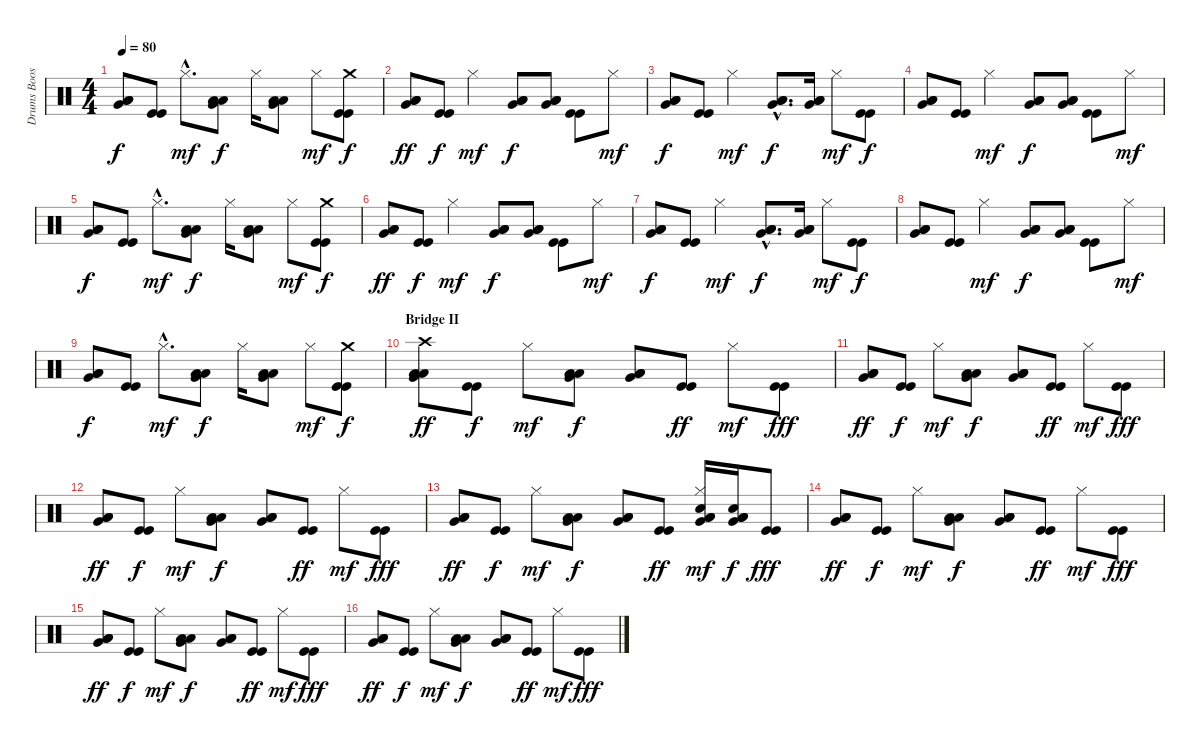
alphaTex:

\track ("Drums Boost" "Drums Boos") {instrument percussion}
\staff {score}
\articulation defaults
\ts (4 4)
\tempo 80
\clef neutral
\ks c
("Very Low Tom (hit)" "Low Floor Tom (hit)" "Low Tom (hit)").8{dy f} ("Kick (hit)" "Kick (hit)").8 "Hi-Hat (closed)"{hac}.8{d dy mf} ("Very Low Tom (hit)" "Low Floor Tom (hit)" "Low Tom (hit)").8{dy f} "Hi-Hat (closed)".16 ("Very Low Tom (hit)" "Low Floor Tom (hit)" "Low Tom (hit)").8 "Hi-Hat (closed)".8{dy mf} ("Crash medium (hit)" "Kick (hit)" "Kick (hit)").8{dy f} |
("Very Low Tom (hit)" "Low Floor Tom (hit)" "Low Tom (hit)").8{bd 60 dy ff} ("Kick (hit)" "Kick (hit)").8{dy f} "Hi-Hat (closed)".4{dy mf} ("Very Low Tom (hit)" "Low Floor Tom (hit)" "Low Tom (hit)").8{dy f} ("Very Low Tom (hit)" "Low Floor Tom (hit)" "Low Tom (hit)").8 ("Kick (hit)" "Kick (hit)").8 "Hi-Hat (closed)".8{dy mf} |
("Very Low Tom (hit)" "Low Floor Tom (hit)" "Low Tom (hit)").8{dy f} ("Kick (hit)" "Kick (hit)").8 "Hi-Hat (closed)".4{dy mf} ("Very Low Tom (hit)"{hac} "Low Floor Tom (hit)"{hac} "Low Tom (hit)"{hac}).8{d dy f} ("Very Low Tom (hit)" "Low Floor Tom (hit)" "Low Tom (hit)").16 "Hi-Hat (closed)".8{dy mf} ("Kick (hit)" "Kick (hit)").8{dy f} |
("Very Low Tom (hit)" "Low Floor Tom (hit)" "Low Tom (hit)").8 ("Kick (hit)" "Kick (hit)").8 "Hi-Hat (closed)".4{dy mf} ("Very Low Tom (hit)" "Low Floor Tom (hit)" "Low Tom (hit)").8{dy f} ("Very Low Tom (hit)" "Low Floor Tom (hit)" "Low Tom (hit)").8 ("Kick (hit)" "Kick (hit)").8 "Hi-Hat (closed)".8{dy mf} |
("Very Low Tom (hit)" "Low Floor Tom (hit)" "Low Tom (hit)").8{dy f} ("Kick (hit)" "Kick (hit)").8 "Hi-Hat (closed)"{hac}.8{d dy mf} ("Very Low Tom (hit)" "Low Floor Tom (hit)" "Low Tom (hit)").8{dy f} "Hi-Hat (closed)".16 ("Very Low Tom (hit)" "Low Floor Tom (hit)" "Low Tom (hit)").8 "Hi-Hat (closed)".8{dy mf} ("Crash medium (hit)" "Kick (hit)" "Kick (hit)").8{dy f} |
("Very Low Tom (hit)" "Low Floor Tom (hit)" "Low Tom (hit)").8{bd 60 dy ff} ("Kick (hit)" "Kick (hit)").8{dy f} "Hi-Hat (closed)".4{dy mf} ("Very Low Tom (hit)" "Low Floor Tom (hit)" "Low Tom (hit)").8{dy f} ("Very Low Tom (hit)" "Low Floor Tom (hit)" "Low Tom (hit)").8 ("Kick (hit)" "Kick (hit)").8 "Hi-Hat (closed)".8{dy mf} |
("Very Low Tom (hit)" "Low Floor Tom (hit)" "Low Tom (hit)").8{dy f} ("Kick (hit)" "Kick (hit)").8 "Hi-Hat (closed)".4{dy mf} ("Very Low Tom (hit)"{hac} "Low Floor Tom (hit)"{hac} "Low Tom (hit)"{hac}).8{d dy f} ("Very Low Tom (hit)" "Low Floor Tom (hit)" "Low Tom (hit)").16 "Hi-Hat (closed)".8{dy mf} ("Kick (hit)" "Kick (hit)").8{dy f} |
("Very Low Tom (hit)" "Low Floor Tom (hit)" "Low Tom (hit)").8 ("Kick (hit)" "Kick (hit)").8 "Hi-Hat (closed)".4{dy mf} ("Very Low Tom (hit)" "Low Floor Tom (hit)" "Low Tom (hit)").8{dy f} ("Very Low Tom (hit)" "Low Floor Tom (hit)" "Low Tom (hit)").8 ("Kick (hit)" "Kick (hit)").8 "Hi-Hat (closed)".8{dy mf} |
("Very Low Tom (hit)" "Low Floor Tom (hit)" "Low Tom (hit)").8{dy f} ("Kick (hit)" "Kick (hit)").8 "Hi-Hat (closed)"{hac}.8{d dy mf} ("Very Low Tom (hit)" "Low Floor Tom (hit)" "Low Tom (hit)").8{dy f} "Hi-Hat (closed)".16 ("Very Low Tom (hit)" "Low Floor Tom (hit)" "Low Tom (hit)").8 "Hi-Hat (closed)".8{dy mf} ("Crash medium (hit)" "Kick (hit)" "Kick (hit)").8{dy f} |
\section ("" "Bridge II")
("Crash high (hit)" "Very Low Tom (hit)" "Low Floor Tom (hit)" "Low Tom (hit)").8{bd 60 dy ff} ("Kick (hit)" "Kick (hit)").8{dy f} "Hi-Hat (closed)".8{dy mf} ("Very Low Tom (hit)" "Low Floor Tom (hit)" "Low Tom (hit)").8{dy f} ("Very Low Tom (hit)" "Low Floor Tom (hit)" "Low Tom (hit)").8 ("Kick (hit)" "Kick (hit)").8{dy ff} "Hi-Hat (closed)".8{dy mf} ("Kick (hit)" "Kick (hit)").8{dy fff} |
("Very Low Tom (hit)" "Low Floor Tom (hit)" "Low Tom (hit)").8{bd 60 dy ff} ("Kick (hit)" "Kick (hit)").8{dy f} "Hi-Hat (closed)".8{dy mf} ("Very Low Tom (hit)" "Low Floor Tom (hit)" "Low Tom (hit)").8{dy f} ("Very Low Tom (hit)" "Low Floor Tom (hit)" "Low Tom (hit)").8 ("Kick (hit)" "Kick (hit)").8{dy ff} "Hi-Hat (closed)".8{dy mf} ("Kick (hit)" "Kick (hit)").8{dy fff} |
("Very Low Tom (hit)" "Low Floor Tom (hit)" "Low Tom (hit)").8{bd 60 dy ff} ("Kick (hit)" "Kick (hit)").8{dy f} "Hi-Hat (closed)".8{dy mf} ("Very Low Tom (hit)" "Low Floor Tom (hit)" "Low Tom (hit)").8{dy f} ("Very Low Tom (hit)" "Low Floor Tom (hit)" "Low Tom (hit)").8 ("Kick (hit)" "Kick (hit)").8{dy ff} "Hi-Hat (closed)".8{dy mf} ("Kick (hit)" "Kick (hit)").8{dy fff} |
("Very Low Tom (hit)" "Low Floor Tom (hit)" "Low Tom (hit)").8{bd 60 dy ff} ("Kick (hit)" "Kick (hit)").8{dy f} "Hi-Hat (closed)".8{dy mf} ("Very Low Tom (hit)" "Low Floor Tom (hit)" "Low Tom (hit)").8{dy f} ("Very Low Tom (hit)" "Low Floor Tom (hit)" "Low Tom (hit)").8 ("Kick (hit)" "Kick (hit)").8{dy ff} ("Hi-Hat (closed)" "Very Low Tom (hit)" "Low Floor Tom (hit)" "Electric Snare (hit)" "Low Tom (hit)").16{dy mf} ("Very Low Tom (hit)" "Low Floor Tom (hit)" "Electric Snare (hit)" "Low Tom (hit)").16{dy f} ("Kick (hit)" "Kick (hit)").8{dy fff} |
("Very Low Tom (hit)" "Low Floor Tom (hit)" "Low Tom (hit)").8{bd 60 dy ff} ("Kick (hit)" "Kick (hit)").8{dy f} "Hi-Hat (closed)".8{dy mf} ("Very Low Tom (hit)" "Low Floor Tom (hit)" "Low Tom (hit)").8{dy f} ("Very Low Tom (hit)" "Low Floor Tom (hit)" "Low Tom (hit)").8 ("Kick (hit)" "Kick (hit)").8{dy ff} "Hi-Hat (closed)".8{dy mf} ("Kick (hit)" "Kick (hit)").8{dy fff} |
("Very Low Tom (hit)" "Low Floor Tom (hit)" "Low Tom (hit)").8{bd 60 dy ff} ("Kick (hit)" "Kick (hit)").8{dy f} "Hi-Hat (closed)".8{dy mf} ("Very Low Tom (hit)" "Low Floor Tom (hit)" "Low Tom (hit)").8{dy f} ("Very Low Tom (hit)" "Low Floor Tom (hit)" "Low Tom (hit)").8 ("Kick (hit)" "Kick (hit)").8{dy ff} "Hi-Hat (closed)".8{dy mf} ("Kick (hit)" "Kick (hit)").8{dy fff} |
("Very Low Tom (hit)" "Low Floor Tom (hit)" "Low Tom (hit)").8{bd 60 dy ff} ("Kick (hit)" "Kick (hit)").8{dy f} "Hi-Hat (closed)".8{dy mf} ("Very Low Tom (hit)" "Low Floor Tom (hit)" "Low Tom (hit)").8{dy f} ("Very Low Tom (hit)" "Low Floor Tom (hit)" "Low Tom (hit)").8 ("Kick (hit)" "Kick (hit)").8{dy ff} "Hi-Hat (closed)".8{dy mf} ("Kick (hit)" "Kick (hit)").8{dy fff}
